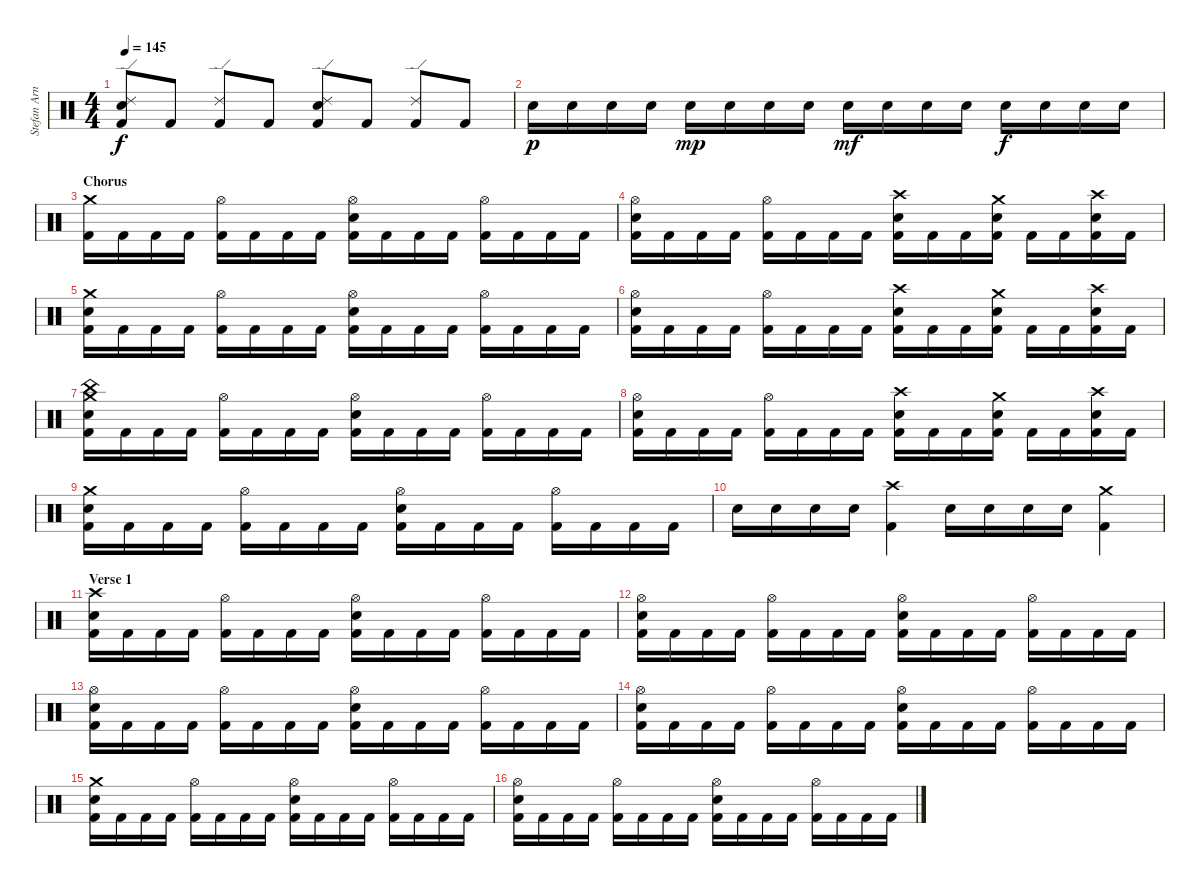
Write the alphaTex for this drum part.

\track ("Stefan Arnold" "Stefan Arn") {instrument percussion}
\staff {score}
\articulation defaults
\ts (4 4)
\tempo 145
\clef neutral
\ks c
("Ride (edge) 2" "Electric Snare (hit)" "Kick (hit) 2").8{dy f} "Kick (hit) 2".8 ("Ride (edge) 2" "Kick (hit) 2").8 "Kick (hit) 2".8 ("Ride (edge) 2" "Electric Snare (hit)" "Kick (hit) 2").8 "Kick (hit) 2".8 ("Ride (edge) 2" "Kick (hit) 2").8 "Kick (hit) 2".8 |
"Electric Snare (hit)".16{dy p} "Electric Snare (hit)".16 "Electric Snare (hit)".16 "Electric Snare (hit)".16 "Electric Snare (hit)".16{dy mp} "Electric Snare (hit)".16 "Electric Snare (hit)".16 "Electric Snare (hit)".16 "Electric Snare (hit)".16{dy mf} "Electric Snare (hit)".16 "Electric Snare (hit)".16 "Electric Snare (hit)".16 "Electric Snare (hit)".16{dy f} "Electric Snare (hit)".16 "Electric Snare (hit)".16 "Electric Snare (hit)".16 |
\section ("" "Chorus")
("Crash medium (hit)" "Kick (hit) 2").16 "Kick (hit) 2".16 "Kick (hit) 2".16 "Kick (hit) 2".16 ("Hi-Hat (open)" "Kick (hit) 2").16 "Kick (hit) 2".16 "Kick (hit) 2".16 "Kick (hit) 2".16 ("Hi-Hat (open)" "Electric Snare (hit)" "Kick (hit) 2").16 "Kick (hit) 2".16 "Kick (hit) 2".16 "Kick (hit) 2".16 ("Hi-Hat (open)" "Kick (hit) 2").16 "Kick (hit) 2".16 "Kick (hit) 2".16 "Kick (hit) 2".16 |
("Hi-Hat (open)" "Electric Snare (hit)" "Kick (hit) 2").16 "Kick (hit) 2".16 "Kick (hit) 2".16 "Kick (hit) 2".16 ("Hi-Hat (open)" "Kick (hit) 2").16 "Kick (hit) 2".16 "Kick (hit) 2".16 "Kick (hit) 2".16 ("Crash high (hit)" "Electric Snare (hit)" "Kick (hit) 2").16 "Kick (hit) 2".16 "Kick (hit) 2".16 ("Crash medium (hit)" "Electric Snare (hit)" "Kick (hit) 2").16 "Kick (hit) 2".16 "Kick (hit) 2".16 ("Crash high (hit)" "Electric Snare (hit)" "Kick (hit) 2").16 "Kick (hit) 2".16 |
("Crash medium (hit)" "Electric Snare (hit)" "Kick (hit) 2").16 "Kick (hit) 2".16 "Kick (hit) 2".16 "Kick (hit) 2".16 ("Hi-Hat (open)" "Kick (hit) 2").16 "Kick (hit) 2".16 "Kick (hit) 2".16 "Kick (hit) 2".16 ("Hi-Hat (open)" "Electric Snare (hit)" "Kick (hit) 2").16 "Kick (hit) 2".16 "Kick (hit) 2".16 "Kick (hit) 2".16 ("Hi-Hat (open)" "Kick (hit) 2").16 "Kick (hit) 2".16 "Kick (hit) 2".16 "Kick (hit) 2".16 |
("Hi-Hat (open)" "Electric Snare (hit)" "Kick (hit) 2").16 "Kick (hit) 2".16 "Kick (hit) 2".16 "Kick (hit) 2".16 ("Hi-Hat (open)" "Kick (hit) 2").16 "Kick (hit) 2".16 "Kick (hit) 2".16 "Kick (hit) 2".16 ("Crash high (hit)" "Electric Snare (hit)" "Kick (hit) 2").16 "Kick (hit) 2".16 "Kick (hit) 2".16 ("Crash medium (hit)" "Electric Snare (hit)" "Kick (hit) 2").16 "Kick (hit) 2".16 "Kick (hit) 2".16 ("Crash high (hit)" "Electric Snare (hit)" "Kick (hit) 2").16 "Kick (hit) 2".16 |
("Crash medium (hit)" "China (hit)" "Electric Snare (hit)" "Kick (hit) 2").16 "Kick (hit) 2".16 "Kick (hit) 2".16 "Kick (hit) 2".16 ("Hi-Hat (open)" "Kick (hit) 2").16 "Kick (hit) 2".16 "Kick (hit) 2".16 "Kick (hit) 2".16 ("Hi-Hat (open)" "Electric Snare (hit)" "Kick (hit) 2").16 "Kick (hit) 2".16 "Kick (hit) 2".16 "Kick (hit) 2".16 ("Hi-Hat (open)" "Kick (hit) 2").16 "Kick (hit) 2".16 "Kick (hit) 2".16 "Kick (hit) 2".16 |
("Hi-Hat (open)" "Electric Snare (hit)" "Kick (hit) 2").16 "Kick (hit) 2".16 "Kick (hit) 2".16 "Kick (hit) 2".16 ("Hi-Hat (open)" "Kick (hit) 2").16 "Kick (hit) 2".16 "Kick (hit) 2".16 "Kick (hit) 2".16 ("Crash high (hit)" "Electric Snare (hit)" "Kick (hit) 2").16 "Kick (hit) 2".16 "Kick (hit) 2".16 ("Crash medium (hit)" "Electric Snare (hit)" "Kick (hit) 2").16 "Kick (hit) 2".16 "Kick (hit) 2".16 ("Crash high (hit)" "Electric Snare (hit)" "Kick (hit) 2").16 "Kick (hit) 2".16 |
("Crash medium (hit)" "Electric Snare (hit)" "Kick (hit) 2").16 "Kick (hit) 2".16 "Kick (hit) 2".16 "Kick (hit) 2".16 ("Hi-Hat (open)" "Kick (hit) 2").16 "Kick (hit) 2".16 "Kick (hit) 2".16 "Kick (hit) 2".16 ("Hi-Hat (open)" "Electric Snare (hit)" "Kick (hit) 2").16 "Kick (hit) 2".16 "Kick (hit) 2".16 "Kick (hit) 2".16 ("Hi-Hat (open)" "Kick (hit) 2").16 "Kick (hit) 2".16 "Kick (hit) 2".16 "Kick (hit) 2".16 |
"Electric Snare (hit)".16 "Electric Snare (hit)".16 "Electric Snare (hit)".16 "Electric Snare (hit)".16 ("Crash high (hit)" "Kick (hit) 2").4 "Electric Snare (hit)".16 "Electric Snare (hit)".16 "Electric Snare (hit)".16 "Electric Snare (hit)".16 ("Crash medium (hit)" "Kick (hit) 2").4 |
\section ("" "Verse 1")
("Crash high (hit)" "Electric Snare (hit)" "Kick (hit) 2").16 "Kick (hit) 2".16 "Kick (hit) 2".16 "Kick (hit) 2".16 ("Hi-Hat (open)" "Kick (hit) 2").16 "Kick (hit) 2".16 "Kick (hit) 2".16 "Kick (hit) 2".16 ("Hi-Hat (open)" "Electric Snare (hit)" "Kick (hit) 2").16 "Kick (hit) 2".16 "Kick (hit) 2".16 "Kick (hit) 2".16 ("Hi-Hat (open)" "Kick (hit) 2").16 "Kick (hit) 2".16 "Kick (hit) 2".16 "Kick (hit) 2".16 |
("Hi-Hat (open)" "Electric Snare (hit)" "Kick (hit) 2").16 "Kick (hit) 2".16 "Kick (hit) 2".16 "Kick (hit) 2".16 ("Hi-Hat (open)" "Kick (hit) 2").16 "Kick (hit) 2".16 "Kick (hit) 2".16 "Kick (hit) 2".16 ("Hi-Hat (open)" "Electric Snare (hit)" "Kick (hit) 2").16 "Kick (hit) 2".16 "Kick (hit) 2".16 "Kick (hit) 2".16 ("Hi-Hat (open)" "Kick (hit) 2").16 "Kick (hit) 2".16 "Kick (hit) 2".16 "Kick (hit) 2".16 |
("Hi-Hat (open)" "Electric Snare (hit)" "Kick (hit) 2").16 "Kick (hit) 2".16 "Kick (hit) 2".16 "Kick (hit) 2".16 ("Hi-Hat (open)" "Kick (hit) 2").16 "Kick (hit) 2".16 "Kick (hit) 2".16 "Kick (hit) 2".16 ("Hi-Hat (open)" "Electric Snare (hit)" "Kick (hit) 2").16 "Kick (hit) 2".16 "Kick (hit) 2".16 "Kick (hit) 2".16 ("Hi-Hat (open)" "Kick (hit) 2").16 "Kick (hit) 2".16 "Kick (hit) 2".16 "Kick (hit) 2".16 |
("Hi-Hat (open)" "Electric Snare (hit)" "Kick (hit) 2").16 "Kick (hit) 2".16 "Kick (hit) 2".16 "Kick (hit) 2".16 ("Hi-Hat (open)" "Kick (hit) 2").16 "Kick (hit) 2".16 "Kick (hit) 2".16 "Kick (hit) 2".16 ("Hi-Hat (open)" "Electric Snare (hit)" "Kick (hit) 2").16 "Kick (hit) 2".16 "Kick (hit) 2".16 "Kick (hit) 2".16 ("Hi-Hat (open)" "Kick (hit) 2").16 "Kick (hit) 2".16 "Kick (hit) 2".16 "Kick (hit) 2".16 |
("Crash medium (hit)" "Electric Snare (hit)" "Kick (hit) 2").16 "Kick (hit) 2".16 "Kick (hit) 2".16 "Kick (hit) 2".16 ("Hi-Hat (open)" "Kick (hit) 2").16 "Kick (hit) 2".16 "Kick (hit) 2".16 "Kick (hit) 2".16 ("Hi-Hat (open)" "Electric Snare (hit)" "Kick (hit) 2").16 "Kick (hit) 2".16 "Kick (hit) 2".16 "Kick (hit) 2".16 ("Hi-Hat (open)" "Kick (hit) 2").16 "Kick (hit) 2".16 "Kick (hit) 2".16 "Kick (hit) 2".16 |
("Hi-Hat (open)" "Electric Snare (hit)" "Kick (hit) 2").16 "Kick (hit) 2".16 "Kick (hit) 2".16 "Kick (hit) 2".16 ("Hi-Hat (open)" "Kick (hit) 2").16 "Kick (hit) 2".16 "Kick (hit) 2".16 "Kick (hit) 2".16 ("Hi-Hat (open)" "Electric Snare (hit)" "Kick (hit) 2").16 "Kick (hit) 2".16 "Kick (hit) 2".16 "Kick (hit) 2".16 ("Hi-Hat (open)" "Kick (hit) 2").16 "Kick (hit) 2".16 "Kick (hit) 2".16 "Kick (hit) 2".16
